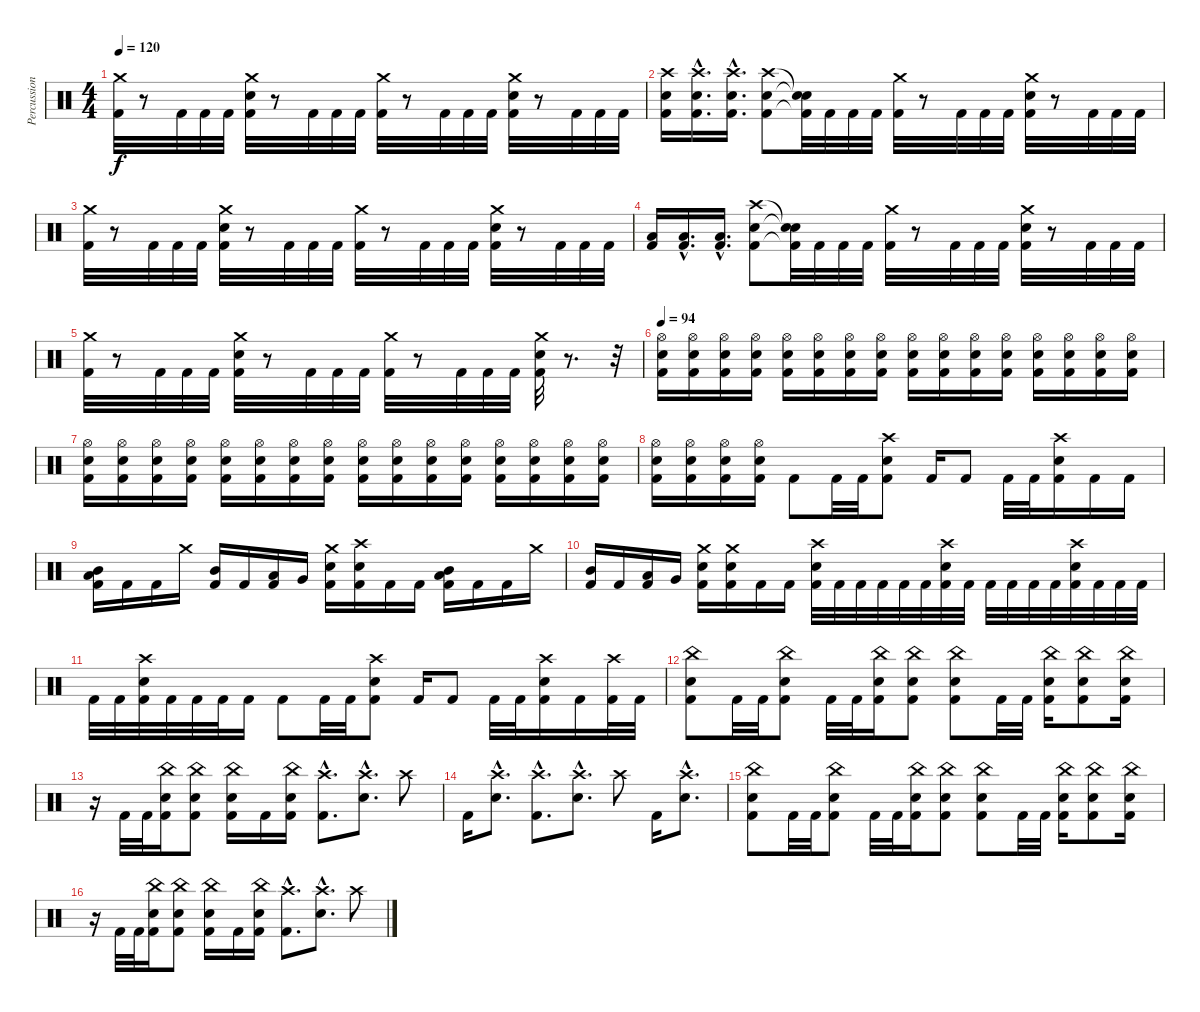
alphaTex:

\track ("Percussion" "Percussion") {instrument percussion}
\staff {score}
\articulation defaults
\ts (4 4)
\tempo 120
\clef neutral
\ks c
("Crash medium (hit)" "Kick (hit) 2").32{dy f} r.8 "Kick (hit) 2".32 "Kick (hit) 2".32 "Kick (hit) 2".32 ("Crash medium (hit)" "Electric Snare (hit)" "Kick (hit) 2").32 r.8 "Kick (hit) 2".32 "Kick (hit) 2".32 "Kick (hit) 2".32 ("Crash medium (hit)" "Kick (hit) 2").32 r.8 "Kick (hit) 2".32 "Kick (hit) 2".32 "Kick (hit) 2".32 ("Crash medium (hit)" "Electric Snare (hit)" "Kick (hit) 2").32 r.8 "Kick (hit) 2".32 "Kick (hit) 2".32 "Kick (hit) 2".32 |
("Crash high (hit)" "Electric Snare (hit)" "Kick (hit) 2").16 ("Crash high (hit)"{hac} "Electric Snare (hit)"{hac} "Kick (hit) 2"{hac}).16{d} ("Crash high (hit)"{hac} "Electric Snare (hit)"{hac} "Kick (hit) 2"{hac}).16{d} ("Crash high (hit)" "Electric Snare (hit)" "Kick (hit) 2").8 ("Snare (hit)"{t} "Snare (hit)"{t} "Kick (hit) 2"{t}).32 "Kick (hit) 2".32 "Kick (hit) 2".32 "Kick (hit) 2".32 ("Crash medium (hit)" "Kick (hit) 2").32 r.8 "Kick (hit) 2".32 "Kick (hit) 2".32 "Kick (hit) 2".32 ("Crash medium (hit)" "Electric Snare (hit)" "Kick (hit) 2").32 r.8 "Kick (hit) 2".32 "Kick (hit) 2".32 "Kick (hit) 2".32 |
("Crash medium (hit)" "Kick (hit) 2").32 r.8 "Kick (hit) 2".32 "Kick (hit) 2".32 "Kick (hit) 2".32 ("Crash medium (hit)" "Electric Snare (hit)" "Kick (hit) 2").32 r.8 "Kick (hit) 2".32 "Kick (hit) 2".32 "Kick (hit) 2".32 ("Crash medium (hit)" "Kick (hit) 2").32 r.8 "Kick (hit) 2".32 "Kick (hit) 2".32 "Kick (hit) 2".32 ("Crash medium (hit)" "Electric Snare (hit)" "Kick (hit) 2").32 r.8 "Kick (hit) 2".32 "Kick (hit) 2".32 "Kick (hit) 2".32 |
("Low Tom (hit)" "Kick (hit) 2").16 ("Low Tom (hit)"{hac} "Kick (hit) 2"{hac}).16{d} ("Low Tom (hit)"{hac} "Kick (hit) 2"{hac}).16{d} ("Crash high (hit)" "Electric Snare (hit)" "Kick (hit) 2").8 ("Snare (hit)"{t} "Snare (hit)"{t} "Kick (hit) 2"{t}).32 "Kick (hit) 2".32 "Kick (hit) 2".32 "Kick (hit) 2".32 ("Crash medium (hit)" "Kick (hit) 2").32 r.8 "Kick (hit) 2".32 "Kick (hit) 2".32 "Kick (hit) 2".32 ("Crash medium (hit)" "Electric Snare (hit)" "Kick (hit) 2").32 r.8 "Kick (hit) 2".32 "Kick (hit) 2".32 "Kick (hit) 2".32 |
("Crash medium (hit)" "Kick (hit) 2").32 r.8 "Kick (hit) 2".32 "Kick (hit) 2".32 "Kick (hit) 2".32 ("Crash medium (hit)" "Electric Snare (hit)" "Kick (hit) 2").32 r.8 "Kick (hit) 2".32 "Kick (hit) 2".32 "Kick (hit) 2".32 ("Crash medium (hit)" "Kick (hit) 2").32 r.8 "Kick (hit) 2".32 "Kick (hit) 2".32 "Kick (hit) 2".32 ("Crash medium (hit)" "Electric Snare (hit)" "Kick (hit) 2").32 r.8{d} r.32 |
\tempo 94
("Electric Snare (hit)" "Hi-Hat (open)" "Kick (hit) 2").16 ("Electric Snare (hit)" "Hi-Hat (open)" "Kick (hit) 2").16 ("Electric Snare (hit)" "Hi-Hat (open)" "Kick (hit) 2").16 ("Electric Snare (hit)" "Hi-Hat (open)" "Kick (hit) 2").16 ("Electric Snare (hit)" "Hi-Hat (open)" "Kick (hit) 2").16 ("Electric Snare (hit)" "Hi-Hat (open)" "Kick (hit) 2").16 ("Electric Snare (hit)" "Hi-Hat (open)" "Kick (hit) 2").16 ("Electric Snare (hit)" "Hi-Hat (open)" "Kick (hit) 2").16 ("Electric Snare (hit)" "Hi-Hat (open)" "Kick (hit) 2").16 ("Electric Snare (hit)" "Hi-Hat (open)" "Kick (hit) 2").16 ("Electric Snare (hit)" "Hi-Hat (open)" "Kick (hit) 2").16 ("Electric Snare (hit)" "Hi-Hat (open)" "Kick (hit) 2").16 ("Electric Snare (hit)" "Hi-Hat (open)" "Kick (hit) 2").16 ("Electric Snare (hit)" "Hi-Hat (open)" "Kick (hit) 2").16 ("Electric Snare (hit)" "Hi-Hat (open)" "Kick (hit) 2").16 ("Electric Snare (hit)" "Hi-Hat (open)" "Kick (hit) 2").16 |
("Electric Snare (hit)" "Hi-Hat (open)" "Kick (hit) 2").16 ("Electric Snare (hit)" "Hi-Hat (open)" "Kick (hit) 2").16 ("Electric Snare (hit)" "Hi-Hat (open)" "Kick (hit) 2").16 ("Electric Snare (hit)" "Hi-Hat (open)" "Kick (hit) 2").16 ("Electric Snare (hit)" "Hi-Hat (open)" "Kick (hit) 2").16 ("Electric Snare (hit)" "Hi-Hat (open)" "Kick (hit) 2").16 ("Electric Snare (hit)" "Hi-Hat (open)" "Kick (hit) 2").16 ("Electric Snare (hit)" "Hi-Hat (open)" "Kick (hit) 2").16 ("Electric Snare (hit)" "Hi-Hat (open)" "Kick (hit) 2").16 ("Electric Snare (hit)" "Hi-Hat (open)" "Kick (hit) 2").16 ("Electric Snare (hit)" "Hi-Hat (open)" "Kick (hit) 2").16 ("Electric Snare (hit)" "Hi-Hat (open)" "Kick (hit) 2").16 ("Electric Snare (hit)" "Hi-Hat (open)" "Kick (hit) 2").16 ("Electric Snare (hit)" "Hi-Hat (open)" "Kick (hit) 2").16 ("Electric Snare (hit)" "Hi-Hat (open)" "Kick (hit) 2").16 ("Electric Snare (hit)" "Hi-Hat (open)" "Kick (hit) 2").16 |
("Electric Snare (hit)" "Hi-Hat (open)" "Kick (hit) 2").16 ("Electric Snare (hit)" "Hi-Hat (open)" "Kick (hit) 2").16 ("Electric Snare (hit)" "Hi-Hat (open)" "Kick (hit) 2").16 ("Electric Snare (hit)" "Hi-Hat (open)" "Kick (hit) 2").16 "Kick (hit) 2".8 "Kick (hit) 2".32 "Kick (hit) 2".32 ("Crash high (hit)" "Electric Snare (hit)" "Kick (hit) 2").8 "Kick (hit) 2".16 "Kick (hit) 2".8 "Kick (hit) 2".32 "Kick (hit) 2".32 ("Crash high (hit)" "Electric Snare (hit)" "Kick (hit) 2").16 "Kick (hit) 2".16 "Kick (hit) 2".16 |
("Low Tom (hit)" "Mid Tom (hit)" "Kick (hit) 2").16 "Kick (hit) 2".16 "Kick (hit) 2".16 "Crash medium (hit)".16 ("Mid Tom (hit)" "Kick (hit) 2").16 "Kick (hit) 2".16 ("Low Tom (hit)" "Kick (hit) 2").16 "Very Low Tom (hit)".16 ("Crash medium (hit)" "Electric Snare (hit)" "Kick (hit) 2").16 ("Crash high (hit)" "Electric Snare (hit)" "Kick (hit) 2").16 "Kick (hit) 2".16 "Kick (hit) 2".16 ("Low Tom (hit)" "Mid Tom (hit)" "Kick (hit) 2").16 "Kick (hit) 2".16 "Kick (hit) 2".16 "Crash medium (hit)".16 |
("Mid Tom (hit)" "Kick (hit) 2").16 "Kick (hit) 2".16 ("Low Tom (hit)" "Kick (hit) 2").16 "Very Low Tom (hit)".16 ("Crash medium (hit)" "Electric Snare (hit)" "Kick (hit) 2").16 ("Crash medium (hit)" "Electric Snare (hit)" "Kick (hit) 2").16 "Kick (hit) 2".16 "Kick (hit) 2".16 ("Crash high (hit)" "Electric Snare (hit)" "Kick (hit) 2").32 "Kick (hit) 2".32 "Kick (hit) 2".32 "Kick (hit) 2".32 "Kick (hit) 2".32 "Kick (hit) 2".32 ("Crash high (hit)" "Electric Snare (hit)" "Kick (hit) 2").32 "Kick (hit) 2".32 "Kick (hit) 2".32 "Kick (hit) 2".32 "Kick (hit) 2".32 "Kick (hit) 2".32 ("Crash high (hit)" "Electric Snare (hit)" "Kick (hit) 2").32 "Kick (hit) 2".32 "Kick (hit) 2".32 "Kick (hit) 2".32 |
"Kick (hit) 2".32 "Kick (hit) 2".32 ("Crash high (hit)" "Electric Snare (hit)" "Kick (hit) 2").32 "Kick (hit) 2".32 "Kick (hit) 2".32 "Kick (hit) 2".32 "Kick (hit) 2".16 "Kick (hit) 2".8 "Kick (hit) 2".32 "Kick (hit) 2".32 ("Crash high (hit)" "Electric Snare (hit)" "Kick (hit) 2").8 "Kick (hit) 2".16 "Kick (hit) 2".8 "Kick (hit) 2".32 "Kick (hit) 2".32 ("Crash high (hit)" "Electric Snare (hit)" "Kick (hit) 2").16 "Kick (hit) 2".16 ("Crash high (hit)" "Kick (hit) 2").32 "Kick (hit) 2".32 |
("China (hit)" "Electric Snare (hit)" "Kick (hit) 2").8 "Kick (hit) 2".32 "Kick (hit) 2".32 ("China (hit)" "Electric Snare (hit)" "Kick (hit) 2").8 "Kick (hit) 2".32 "Kick (hit) 2".32 ("China (hit)" "Electric Snare (hit)" "Kick (hit) 2").16 ("China (hit)" "Electric Snare (hit)" "Kick (hit) 2").8 ("China (hit)" "Electric Snare (hit)" "Kick (hit) 2").8 "Kick (hit) 2".32 "Kick (hit) 2".32 ("China (hit)" "Electric Snare (hit)" "Kick (hit) 2").16 ("China (hit)" "Electric Snare (hit)" "Kick (hit) 2").8 ("China (hit)" "Electric Snare (hit)" "Kick (hit) 2").16 |
r.16 "Kick (hit) 2".32 "Kick (hit) 2".32 ("China (hit)" "Electric Snare (hit)" "Kick (hit) 2").16 ("China (hit)" "Electric Snare (hit)" "Kick (hit) 2").8 ("China (hit)" "Electric Snare (hit)" "Kick (hit) 2").16 "Kick (hit) 2".16 ("China (hit)" "Electric Snare (hit)" "Kick (hit) 2").16 ("Crash high (hit)"{hac} "Kick (hit) 2"{hac}).8{d} ("Crash high (hit)"{hac} "Electric Snare (hit)"{hac}).8{d} "Crash high (hit)".8 |
"Kick (hit) 2".16 ("Crash high (hit)"{hac} "Electric Snare (hit)"{hac}).8{d} ("Crash high (hit)"{hac} "Kick (hit) 2"{hac}).8{d} ("Crash high (hit)"{hac} "Electric Snare (hit)"{hac}).8{d} "Crash high (hit)".8 "Kick (hit) 2".16 ("Crash high (hit)"{hac} "Electric Snare (hit)"{hac}).8{d} |
("China (hit)" "Electric Snare (hit)" "Kick (hit) 2").8 "Kick (hit) 2".32 "Kick (hit) 2".32 ("China (hit)" "Electric Snare (hit)" "Kick (hit) 2").8 "Kick (hit) 2".32 "Kick (hit) 2".32 ("China (hit)" "Electric Snare (hit)" "Kick (hit) 2").16 ("China (hit)" "Electric Snare (hit)" "Kick (hit) 2").8 ("China (hit)" "Electric Snare (hit)" "Kick (hit) 2").8 "Kick (hit) 2".32 "Kick (hit) 2".32 ("China (hit)" "Electric Snare (hit)" "Kick (hit) 2").16 ("China (hit)" "Electric Snare (hit)" "Kick (hit) 2").8 ("China (hit)" "Electric Snare (hit)" "Kick (hit) 2").16 |
r.16 "Kick (hit) 2".32 "Kick (hit) 2".32 ("China (hit)" "Electric Snare (hit)" "Kick (hit) 2").16 ("China (hit)" "Electric Snare (hit)" "Kick (hit) 2").8 ("China (hit)" "Electric Snare (hit)" "Kick (hit) 2").16 "Kick (hit) 2".16 ("China (hit)" "Electric Snare (hit)" "Kick (hit) 2").16 ("Crash high (hit)"{hac} "Kick (hit) 2"{hac}).8{d} ("Crash high (hit)"{hac} "Electric Snare (hit)"{hac}).8{d} "Crash high (hit)".8
